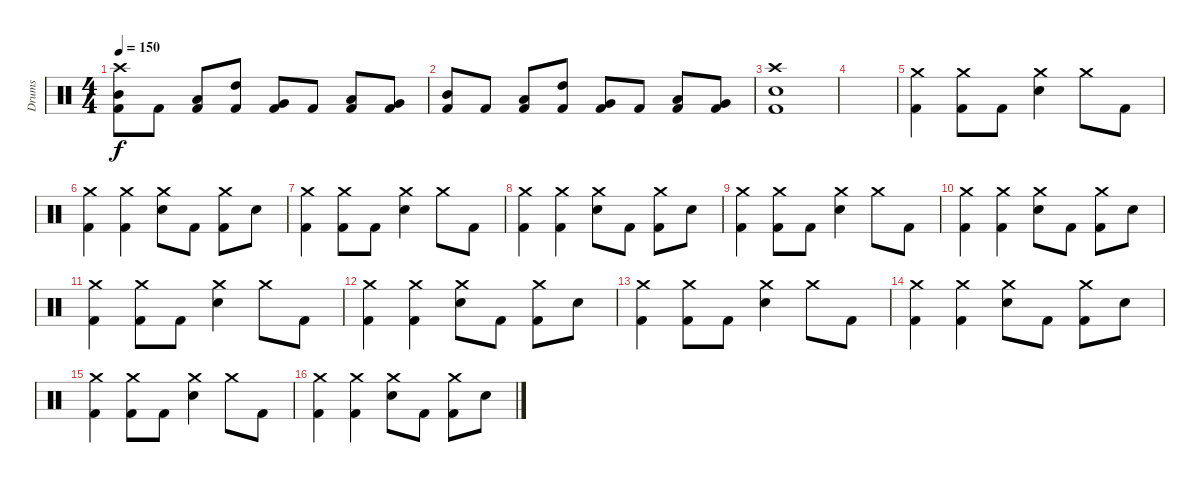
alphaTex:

\track ("Drums" "Drums") {instrument percussion}
\staff {score}
\articulation defaults
\ts (4 4)
\tempo 150
\clef neutral
\ks c
("Crash high (hit)" "Mid Tom (hit)" "Kick (hit) 2").8{dy f} "Kick (hit) 2".8 ("Low Tom (hit)" "Kick (hit) 2").8 ("High Tom (hit)" "Kick (hit) 2").8 ("Very Low Tom (hit)" "Kick (hit) 2").8 "Kick (hit) 2".8 ("Low Tom (hit)" "Kick (hit) 2").8 ("Very Low Tom (hit)" "Kick (hit) 2").8 |
("Mid Tom (hit)" "Kick (hit) 2").8 "Kick (hit) 2".8 ("Low Tom (hit)" "Kick (hit) 2").8 ("High Tom (hit)" "Kick (hit) 2").8 ("Very Low Tom (hit)" "Kick (hit) 2").8 "Kick (hit) 2".8 ("Low Tom (hit)" "Kick (hit) 2").8 ("Very Low Tom (hit)" "Kick (hit) 2").8 |
("Crash high (hit)" "Snare (hit) 2" "Kick (hit) 2").1 |
|
("Crash medium (hit)" "Kick (hit) 2").4 ("Crash medium (hit)" "Kick (hit) 2").8 "Kick (hit) 2".8 ("Crash medium (hit)" "Snare (hit) 2").4 "Crash medium (hit)".8 "Kick (hit) 2".8 |
("Crash medium (hit)" "Kick (hit) 2").4 ("Crash medium (hit)" "Kick (hit) 2").4 ("Crash medium (hit)" "Snare (hit) 2").8 "Kick (hit) 2".8 ("Crash medium (hit)" "Kick (hit) 2").8 "Snare (hit) 2".8 |
("Crash medium (hit)" "Kick (hit) 2").4 ("Crash medium (hit)" "Kick (hit) 2").8 "Kick (hit) 2".8 ("Crash medium (hit)" "Snare (hit) 2").4 "Crash medium (hit)".8 "Kick (hit) 2".8 |
("Crash medium (hit)" "Kick (hit) 2").4 ("Crash medium (hit)" "Kick (hit) 2").4 ("Crash medium (hit)" "Snare (hit) 2").8 "Kick (hit) 2".8 ("Crash medium (hit)" "Kick (hit) 2").8 "Snare (hit) 2".8 |
("Crash medium (hit)" "Kick (hit) 2").4 ("Crash medium (hit)" "Kick (hit) 2").8 "Kick (hit) 2".8 ("Crash medium (hit)" "Snare (hit) 2").4 "Crash medium (hit)".8 "Kick (hit) 2".8 |
("Crash medium (hit)" "Kick (hit) 2").4 ("Crash medium (hit)" "Kick (hit) 2").4 ("Crash medium (hit)" "Snare (hit) 2").8 "Kick (hit) 2".8 ("Crash medium (hit)" "Kick (hit) 2").8 "Snare (hit) 2".8 |
("Crash medium (hit)" "Kick (hit) 2").4 ("Crash medium (hit)" "Kick (hit) 2").8 "Kick (hit) 2".8 ("Crash medium (hit)" "Snare (hit) 2").4 "Crash medium (hit)".8 "Kick (hit) 2".8 |
("Crash medium (hit)" "Kick (hit) 2").4 ("Crash medium (hit)" "Kick (hit) 2").4 ("Crash medium (hit)" "Snare (hit) 2").8 "Kick (hit) 2".8 ("Crash medium (hit)" "Kick (hit) 2").8 "Snare (hit) 2".8 |
("Crash medium (hit)" "Kick (hit) 2").4 ("Crash medium (hit)" "Kick (hit) 2").8 "Kick (hit) 2".8 ("Crash medium (hit)" "Snare (hit) 2").4 "Crash medium (hit)".8 "Kick (hit) 2".8 |
("Crash medium (hit)" "Kick (hit) 2").4 ("Crash medium (hit)" "Kick (hit) 2").4 ("Crash medium (hit)" "Snare (hit) 2").8 "Kick (hit) 2".8 ("Crash medium (hit)" "Kick (hit) 2").8 "Snare (hit) 2".8 |
("Crash medium (hit)" "Kick (hit) 2").4 ("Crash medium (hit)" "Kick (hit) 2").8 "Kick (hit) 2".8 ("Crash medium (hit)" "Snare (hit) 2").4 "Crash medium (hit)".8 "Kick (hit) 2".8 |
("Crash medium (hit)" "Kick (hit) 2").4 ("Crash medium (hit)" "Kick (hit) 2").4 ("Crash medium (hit)" "Snare (hit) 2").8 "Kick (hit) 2".8 ("Crash medium (hit)" "Kick (hit) 2").8 "Snare (hit) 2".8
